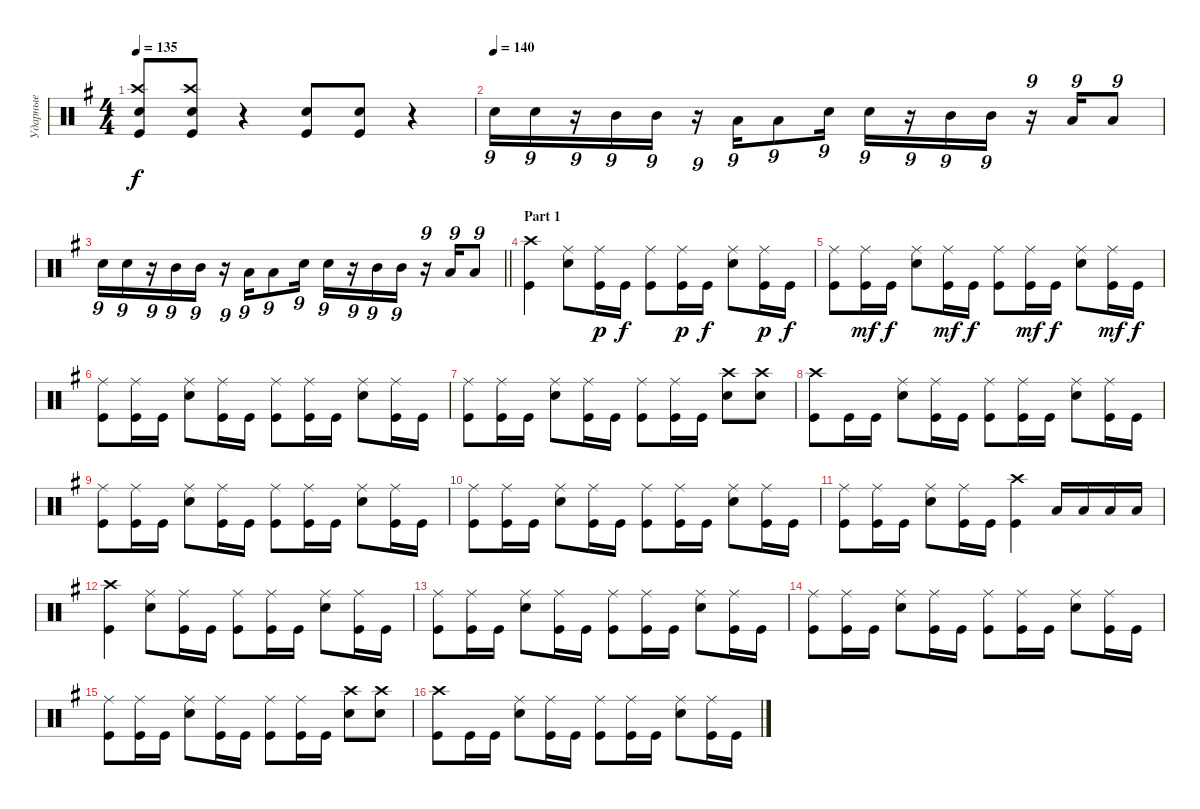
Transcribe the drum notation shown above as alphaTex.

\track ("Ударные" "Ударные") {instrument percussion}
\staff {score}
\articulation defaults
\ts (4 4)
\tempo 135
\clef neutral
\ks eminor
("Kick (hit)" "Crash high (hit)" "Snare (hit) 2").8{dy f} ("Kick (hit)" "Crash high (hit)" "Snare (hit) 2").8 r.4 ("Kick (hit)" "Snare (hit) 2").8 ("Kick (hit)" "Snare (hit) 2").8 r.4 |
\tempo (140)
"Snare (hit) 2".16{tu (9 8)} "Snare (hit) 2".16{tu (9 8)} r.16{tu (9 8)} "Mid Tom (hit)".16{tu (9 8)} "Mid Tom (hit)".16{tu (9 8)} r.16{tu (9 8)} "Low Tom (hit)".16{tu (9 8)} "Low Tom (hit)".8{tu (9 8)} "Snare (hit) 2".16{tu (9 8)} "Snare (hit) 2".16{tu (9 8)} r.16{tu (9 8)} "Mid Tom (hit)".16{tu (9 8)} "Mid Tom (hit)".16{tu (9 8)} r.16{tu (9 8)} "Low Tom (hit)".16{tu (9 8)} "Low Tom (hit)".8{tu (9 8)} |
\barLineRight lightlight "Snare (hit) 2".16{tu (9 8)} "Snare (hit) 2".16{tu (9 8)}
r.16{tu (9 8)} "Mid Tom (hit)".16{tu (9 8)} "Mid Tom (hit)".16{tu (9 8)} r.16{tu (9 8)} "Low Tom (hit)".16{tu (9 8)} "Low Tom (hit)".8{tu (9 8)} "Snare (hit) 2".16{tu (9 8)} "Snare (hit) 2".16{tu (9 8)} r.16{tu (9 8)} "Mid Tom (hit)".16{tu (9 8)} "Mid Tom (hit)".16{tu (9 8)} r.16{tu (9 8)} "Low Tom (hit)".16{tu (9 8)} "Low Tom (hit)".8{tu (9 8)} |
\section ("" "Part 1")
("Kick (hit)" "Crash high (hit)").4 ("Snare (hit) 2" "Ride (middle)").8 ("Kick (hit)" "Ride (middle)").16{dy p} "Kick (hit)".16{dy f} ("Kick (hit)" "Ride (middle)").8 ("Kick (hit)" "Ride (middle)").16{dy p} "Kick (hit)".16{dy f} ("Snare (hit) 2" "Ride (middle)").8 ("Kick (hit)" "Ride (middle)").16{dy p} "Kick (hit)".16{dy f} |
("Kick (hit)" "Ride (middle)").8 ("Kick (hit)" "Ride (middle)").16{dy mf} "Kick (hit)".16{dy f} ("Snare (hit) 2" "Ride (middle)").8 ("Kick (hit)" "Ride (middle)").16{dy mf} "Kick (hit)".16{dy f} ("Kick (hit)" "Ride (middle)").8 ("Kick (hit)" "Ride (middle)").16{dy mf} "Kick (hit)".16{dy f} ("Snare (hit) 2" "Ride (middle)").8 ("Kick (hit)" "Ride (middle)").16{dy mf} "Kick (hit)".16{dy f} |
("Kick (hit)" "Ride (middle)").8 ("Kick (hit)" "Ride (middle)").16 "Kick (hit)".16 ("Snare (hit) 2" "Ride (middle)").8 ("Kick (hit)" "Ride (middle)").16 "Kick (hit)".16 ("Kick (hit)" "Ride (middle)").8 ("Kick (hit)" "Ride (middle)").16 "Kick (hit)".16 ("Snare (hit) 2" "Ride (middle)").8 ("Kick (hit)" "Ride (middle)").16 "Kick (hit)".16 |
("Kick (hit)" "Ride (middle)").8 ("Kick (hit)" "Ride (middle)").16 "Kick (hit)".16 ("Snare (hit) 2" "Ride (middle)").8 ("Kick (hit)" "Ride (middle)").16 "Kick (hit)".16 ("Kick (hit)" "Ride (middle)").8 ("Kick (hit)" "Ride (middle)").16 "Kick (hit)".16 ("Snare (hit) 2" "Crash high (hit)").8 ("Snare (hit) 2" "Crash high (hit)").8 |
("Kick (hit)" "Crash high (hit)").8 "Kick (hit)".16 "Kick (hit)".16 ("Snare (hit) 2" "Ride (middle)").8 ("Kick (hit)" "Ride (middle)").16 "Kick (hit)".16 ("Kick (hit)" "Ride (middle)").8 ("Kick (hit)" "Ride (middle)").16 "Kick (hit)".16 ("Snare (hit) 2" "Ride (middle)").8 ("Kick (hit)" "Ride (middle)").16 "Kick (hit)".16 |
("Kick (hit)" "Ride (middle)").8 ("Kick (hit)" "Ride (middle)").16 "Kick (hit)".16 ("Snare (hit) 2" "Ride (middle)").8 ("Kick (hit)" "Ride (middle)").16 "Kick (hit)".16 ("Kick (hit)" "Ride (middle)").8 ("Kick (hit)" "Ride (middle)").16 "Kick (hit)".16 ("Snare (hit) 2" "Ride (middle)").8 ("Kick (hit)" "Ride (middle)").16 "Kick (hit)".16 |
("Kick (hit)" "Ride (middle)").8 ("Kick (hit)" "Ride (middle)").16 "Kick (hit)".16 ("Snare (hit) 2" "Ride (middle)").8 ("Kick (hit)" "Ride (middle)").16 "Kick (hit)".16 ("Kick (hit)" "Ride (middle)").8 ("Kick (hit)" "Ride (middle)").16 "Kick (hit)".16 ("Snare (hit) 2" "Ride (middle)").8 ("Kick (hit)" "Ride (middle)").16 "Kick (hit)".16 |
("Kick (hit)" "Ride (middle)").8 ("Kick (hit)" "Ride (middle)").16 "Kick (hit)".16 ("Snare (hit) 2" "Ride (middle)").8 ("Kick (hit)" "Ride (middle)").16 "Kick (hit)".16 ("Kick (hit)" "Crash high (hit)").4 "Low Tom (hit)".16 "Low Tom (hit)".16 "Low Tom (hit)".16 "Low Tom (hit)".16 |
("Kick (hit)" "Crash high (hit)").4 ("Snare (hit) 2" "Ride (middle)").8 ("Kick (hit)" "Ride (middle)").16 "Kick (hit)".16 ("Kick (hit)" "Ride (middle)").8 ("Kick (hit)" "Ride (middle)").16 "Kick (hit)".16 ("Snare (hit) 2" "Ride (middle)").8 ("Kick (hit)" "Ride (middle)").16 "Kick (hit)".16 |
("Kick (hit)" "Ride (middle)").8 ("Kick (hit)" "Ride (middle)").16 "Kick (hit)".16 ("Snare (hit) 2" "Ride (middle)").8 ("Kick (hit)" "Ride (middle)").16 "Kick (hit)".16 ("Kick (hit)" "Ride (middle)").8 ("Kick (hit)" "Ride (middle)").16 "Kick (hit)".16 ("Snare (hit) 2" "Ride (middle)").8 ("Kick (hit)" "Ride (middle)").16 "Kick (hit)".16 |
("Kick (hit)" "Ride (middle)").8 ("Kick (hit)" "Ride (middle)").16 "Kick (hit)".16 ("Snare (hit) 2" "Ride (middle)").8 ("Kick (hit)" "Ride (middle)").16 "Kick (hit)".16 ("Kick (hit)" "Ride (middle)").8 ("Kick (hit)" "Ride (middle)").16 "Kick (hit)".16 ("Snare (hit) 2" "Ride (middle)").8 ("Kick (hit)" "Ride (middle)").16 "Kick (hit)".16 |
("Kick (hit)" "Ride (middle)").8 ("Kick (hit)" "Ride (middle)").16 "Kick (hit)".16 ("Snare (hit) 2" "Ride (middle)").8 ("Kick (hit)" "Ride (middle)").16 "Kick (hit)".16 ("Kick (hit)" "Ride (middle)").8 ("Kick (hit)" "Ride (middle)").16 "Kick (hit)".16 ("Snare (hit) 2" "Crash high (hit)").8 ("Snare (hit) 2" "Crash high (hit)").8 |
("Kick (hit)" "Crash high (hit)").8 "Kick (hit)".16 "Kick (hit)".16 ("Snare (hit) 2" "Ride (middle)").8 ("Kick (hit)" "Ride (middle)").16 "Kick (hit)".16 ("Kick (hit)" "Ride (middle)").8 ("Kick (hit)" "Ride (middle)").16 "Kick (hit)".16 ("Snare (hit) 2" "Ride (middle)").8 ("Kick (hit)" "Ride (middle)").16 "Kick (hit)".16
